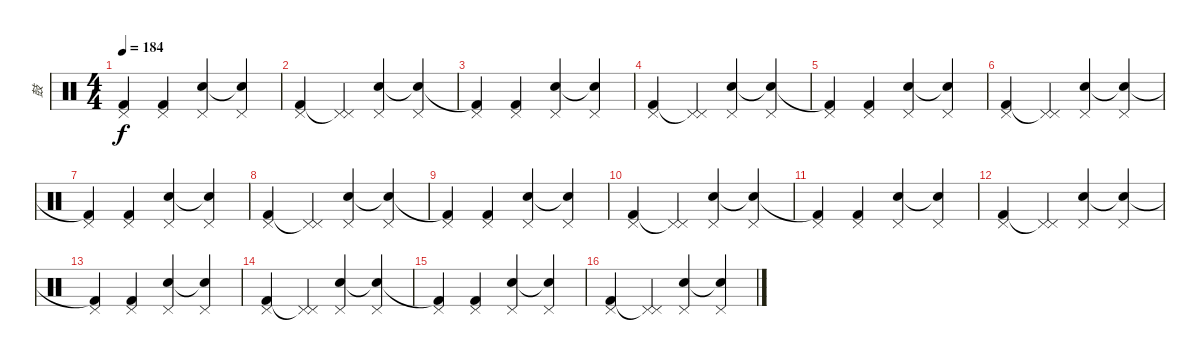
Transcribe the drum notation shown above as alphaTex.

\track ("鼓" "鼓") {instrument percussion}
\staff {score}
\articulation defaults
\ts (4 4)
\tempo 184
\clef neutral
\ks c
("Pedal Hi-Hat (hit)" "Kick (hit) 2"{t}).4{dy f} ("Pedal Hi-Hat (hit)" "Kick (hit) 2").4 ("Pedal Hi-Hat (hit)" "Electric Snare (hit)").4 ("Pedal Hi-Hat (hit)" "Snare (hit)"{t}).4 |
("Pedal Hi-Hat (hit)" "Kick (hit) 2").4 ("Pedal Hi-Hat (hit)" "Pedal Hi-Hat (hit)"{t}).4 ("Pedal Hi-Hat (hit)" "Electric Snare (hit)").4 ("Pedal Hi-Hat (hit)" "Snare (hit)"{t}).4 |
("Pedal Hi-Hat (hit)" "Kick (hit) 2"{t}).4 ("Pedal Hi-Hat (hit)" "Kick (hit) 2").4 ("Pedal Hi-Hat (hit)" "Electric Snare (hit)").4 ("Pedal Hi-Hat (hit)" "Snare (hit)"{t}).4 |
("Pedal Hi-Hat (hit)" "Kick (hit) 2").4 ("Pedal Hi-Hat (hit)" "Pedal Hi-Hat (hit)"{t}).4 ("Pedal Hi-Hat (hit)" "Electric Snare (hit)").4 ("Pedal Hi-Hat (hit)" "Snare (hit)"{t}).4 |
("Pedal Hi-Hat (hit)" "Kick (hit) 2"{t}).4 ("Pedal Hi-Hat (hit)" "Kick (hit) 2").4 ("Pedal Hi-Hat (hit)" "Electric Snare (hit)").4 ("Pedal Hi-Hat (hit)" "Snare (hit)"{t}).4 |
("Pedal Hi-Hat (hit)" "Kick (hit) 2").4 ("Pedal Hi-Hat (hit)" "Pedal Hi-Hat (hit)"{t}).4 ("Pedal Hi-Hat (hit)" "Electric Snare (hit)").4 ("Pedal Hi-Hat (hit)" "Snare (hit)"{t}).4 |
("Pedal Hi-Hat (hit)" "Kick (hit) 2"{t}).4 ("Pedal Hi-Hat (hit)" "Kick (hit) 2").4 ("Pedal Hi-Hat (hit)" "Electric Snare (hit)").4 ("Pedal Hi-Hat (hit)" "Snare (hit)"{t}).4 |
("Pedal Hi-Hat (hit)" "Kick (hit) 2").4 ("Pedal Hi-Hat (hit)" "Pedal Hi-Hat (hit)"{t}).4 ("Pedal Hi-Hat (hit)" "Electric Snare (hit)").4 ("Pedal Hi-Hat (hit)" "Snare (hit)"{t}).4 |
("Pedal Hi-Hat (hit)" "Kick (hit) 2"{t}).4 ("Pedal Hi-Hat (hit)" "Kick (hit) 2").4 ("Pedal Hi-Hat (hit)" "Electric Snare (hit)").4 ("Pedal Hi-Hat (hit)" "Snare (hit)"{t}).4 |
("Pedal Hi-Hat (hit)" "Kick (hit) 2").4 ("Pedal Hi-Hat (hit)" "Pedal Hi-Hat (hit)"{t}).4 ("Pedal Hi-Hat (hit)" "Electric Snare (hit)").4 ("Pedal Hi-Hat (hit)" "Snare (hit)"{t}).4 |
("Pedal Hi-Hat (hit)" "Kick (hit) 2"{t}).4 ("Pedal Hi-Hat (hit)" "Kick (hit) 2").4 ("Pedal Hi-Hat (hit)" "Electric Snare (hit)").4 ("Pedal Hi-Hat (hit)" "Snare (hit)"{t}).4 |
("Pedal Hi-Hat (hit)" "Kick (hit) 2").4 ("Pedal Hi-Hat (hit)" "Pedal Hi-Hat (hit)"{t}).4 ("Pedal Hi-Hat (hit)" "Electric Snare (hit)").4 ("Pedal Hi-Hat (hit)" "Snare (hit)"{t}).4 |
("Pedal Hi-Hat (hit)" "Kick (hit) 2"{t}).4 ("Pedal Hi-Hat (hit)" "Kick (hit) 2").4 ("Pedal Hi-Hat (hit)" "Electric Snare (hit)").4 ("Pedal Hi-Hat (hit)" "Snare (hit)"{t}).4 |
("Pedal Hi-Hat (hit)" "Kick (hit) 2").4 ("Pedal Hi-Hat (hit)" "Pedal Hi-Hat (hit)"{t}).4 ("Pedal Hi-Hat (hit)" "Electric Snare (hit)").4 ("Pedal Hi-Hat (hit)" "Snare (hit)"{t}).4 |
("Pedal Hi-Hat (hit)" "Kick (hit) 2"{t}).4 ("Pedal Hi-Hat (hit)" "Kick (hit) 2").4 ("Pedal Hi-Hat (hit)" "Electric Snare (hit)").4 ("Pedal Hi-Hat (hit)" "Snare (hit)"{t}).4 |
("Pedal Hi-Hat (hit)" "Kick (hit) 2").4 ("Pedal Hi-Hat (hit)" "Pedal Hi-Hat (hit)"{t}).4 ("Pedal Hi-Hat (hit)" "Electric Snare (hit)").4 ("Pedal Hi-Hat (hit)" "Snare (hit)"{t}).4
